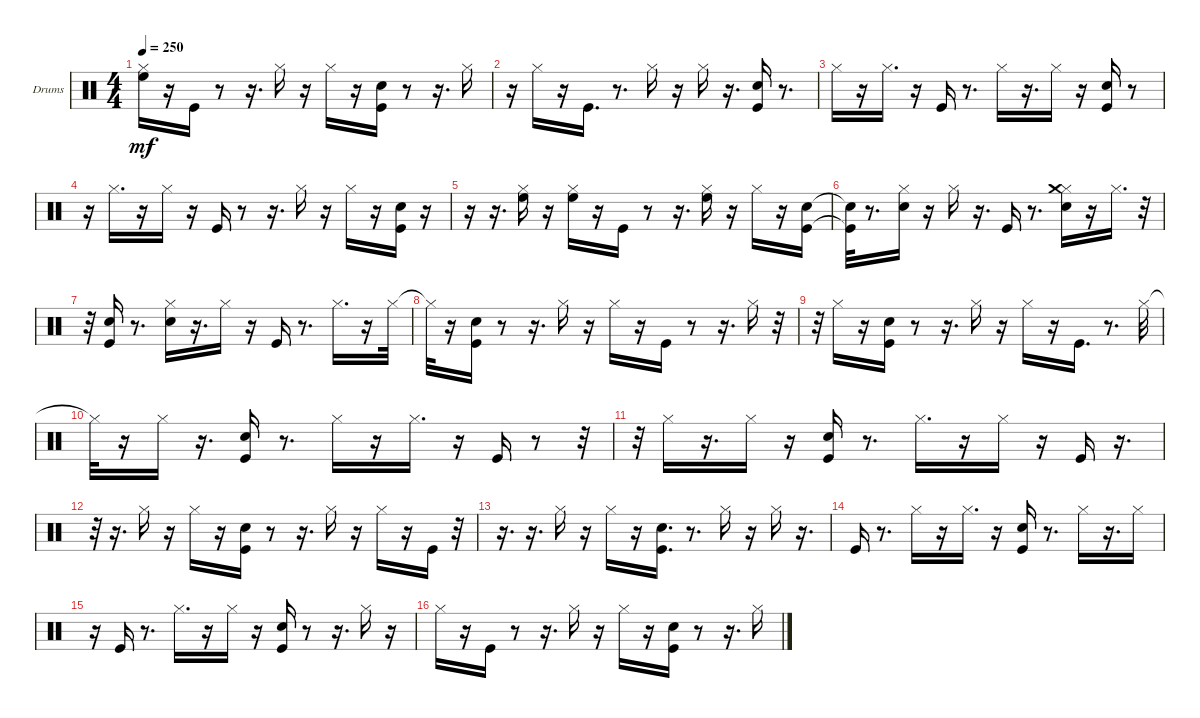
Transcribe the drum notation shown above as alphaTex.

\bracketExtendMode groupsimilarinstruments
\firstSystemTrackNameOrientation horizontal
\otherSystemsTrackNameOrientation horizontal
\track ("Drums" "Drums") {instrument percussion}
\staff {score}
\articulation defaults
\ts (4 4)
\tempo 250
\clef neutral
\ks c
("High Floor Tom (hit)" "Hi-Hat (closed)").16{dy mf} r.16 "Kick (hit)".16 r.8 r.16{d} "Hi-Hat (closed)".16 r.16 "Hi-Hat (closed)".16 r.16 ("Kick (hit)" "Snare (hit) 2").16 r.8 r.16{d} "Hi-Hat (closed)".16 |
r.16 "Hi-Hat (closed)".16 r.16 "Kick (hit)".16{d} r.8{d} "Hi-Hat (closed)".16 r.16 "Hi-Hat (closed)".16 r.16{d} ("Kick (hit)" "Snare (hit) 2").16 r.8{d} |
"Hi-Hat (closed)".16 r.16 "Hi-Hat (closed)".16{d} r.16 "Kick (hit)".16 r.8{d} "Hi-Hat (closed)".16 r.16{d} "Hi-Hat (closed)".16 r.16 ("Kick (hit)" "Snare (hit) 2").16 r.8 |
r.16 "Hi-Hat (closed)".16{d} r.16 "Hi-Hat (closed)".16 r.16 "Kick (hit)".16 r.8 r.16{d} "Hi-Hat (closed)".16 r.16 "Hi-Hat (closed)".16 r.16 ("Kick (hit)" "Snare (hit) 2").16 r.16 |
r.16 r.16{d} ("High Floor Tom (hit)" "Hi-Hat (closed)").16 r.16 ("High Floor Tom (hit)" "Hi-Hat (closed)").16 r.16 "Kick (hit)".16 r.8 r.16{d} ("High Floor Tom (hit)" "Hi-Hat (closed)").16 r.16 "Hi-Hat (closed)".16 r.16 ("Kick (hit)" "Snare (hit) 2").16 |
("Kick (hit)"{t} "Snare (hit) 2"{t}).32 r.8{d} ("Hi-Hat (closed)" "Snare (hit) 2").16 r.16 "Hi-Hat (closed)".16 r.16{d} "Kick (hit)".16 r.8{d} ("Hi-Hat (closed)" "Snare (hit) 2" "Crash medium (hit)").16 r.16 "Hi-Hat (closed)".16{d} r.32 |
r.32 ("Kick (hit)" "Snare (hit) 2").16 r.8{d} ("Hi-Hat (closed)" "Snare (hit) 2").16 r.16{d} "Hi-Hat (closed)".16 r.16 "Kick (hit)".16 r.8{d} "Hi-Hat (closed)".16{d} r.16 "Hi-Hat (closed)".32 |
"Hi-Hat (closed)"{t}.32 r.16 ("Kick (hit)" "Snare (hit) 2").16 r.8 r.16{d} "Hi-Hat (closed)".16 r.16 "Hi-Hat (closed)".16 r.16 "Kick (hit)".16 r.8 r.16{d} "Hi-Hat (closed)".16 r.32 |
r.32 "Hi-Hat (closed)".16 r.16 ("Kick (hit)" "Snare (hit) 2").16 r.8 r.16{d} "Hi-Hat (closed)".16 r.16 "Hi-Hat (closed)".16 r.16 "Kick (hit)".16{d} r.8{d} "Hi-Hat (closed)".32 |
"Hi-Hat (closed)"{t}.32 r.16 "Hi-Hat (closed)".16 r.16{d} ("Kick (hit)" "Snare (hit) 2").16 r.8{d} "Hi-Hat (closed)".16 r.16 "Hi-Hat (closed)".16{d} r.16 "Kick (hit)".16 r.8 r.32 |
r.32 "Hi-Hat (closed)".16 r.16{d} "Hi-Hat (closed)".16 r.16 ("Kick (hit)" "Snare (hit) 2").16 r.8{d} "Hi-Hat (closed)".16{d} r.16 "Hi-Hat (closed)".16 r.16 "Kick (hit)".16 r.16{d} |
r.32 r.16{d} "Hi-Hat (closed)".16 r.16 "Hi-Hat (closed)".16 r.16 ("Kick (hit)" "Snare (hit) 2").16 r.8 r.16{d} "Hi-Hat (closed)".16 r.16 "Hi-Hat (closed)".16 r.16 "Kick (hit)".16 r.32 |
r.16{d} r.16{d} "Hi-Hat (closed)".16 r.16 "Hi-Hat (closed)".16 r.16 ("Kick (hit)" "Snare (hit) 2").16{d} r.8{d} "Hi-Hat (closed)".16 r.16 "Hi-Hat (closed)".16 r.16{d} |
"Kick (hit)".16 r.8{d} "Hi-Hat (closed)".16 r.16 "Hi-Hat (closed)".16{d} r.16 ("Kick (hit)" "Snare (hit) 2").16 r.8{d} "Hi-Hat (closed)".16 r.16{d} "Hi-Hat (closed)".16 |
r.16 "Kick (hit)".16 r.8{d} "Hi-Hat (closed)".16{d} r.16 "Hi-Hat (closed)".16 r.16 ("Kick (hit)" "Snare (hit) 2").16 r.8 r.16{d} "Hi-Hat (closed)".16 r.16 |
"Hi-Hat (closed)".16 r.16 "Kick (hit)".16 r.8 r.16{d} "Hi-Hat (closed)".16 r.16 "Hi-Hat (closed)".16 r.16 ("Kick (hit)" "Snare (hit) 2").16 r.8 r.16{d} "Hi-Hat (closed)".16
